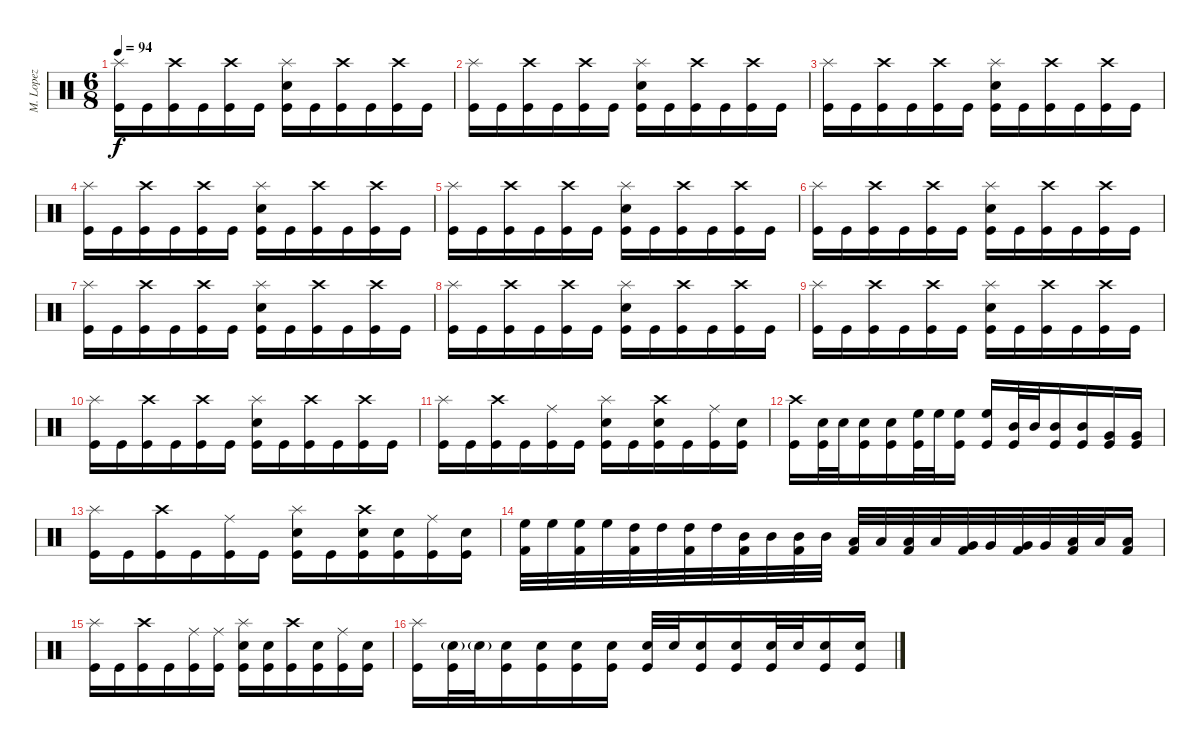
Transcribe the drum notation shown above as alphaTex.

\track ("M. Lopez" "M. Lopez") {instrument percussion}
\staff {score}
\articulation defaults
\ts (6 8)
\tempo 94
\clef neutral
\ks c
("Splash (hit)" "Kick (hit)").16{dy f} "Kick (hit)".16 ("Crash high (hit)" "Kick (hit)").16 "Kick (hit)".16 ("Crash high (hit)" "Kick (hit)").16 "Kick (hit)".16 ("Splash (hit)" "Electric Snare (hit)" "Kick (hit)").16 "Kick (hit)".16 ("Crash high (hit)" "Kick (hit)").16 "Kick (hit)".16 ("Crash high (hit)" "Kick (hit)").16 "Kick (hit)".16 |
("Splash (hit)" "Kick (hit)").16 "Kick (hit)".16 ("Crash high (hit)" "Kick (hit)").16 "Kick (hit)".16 ("Crash high (hit)" "Kick (hit)").16 "Kick (hit)".16 ("Splash (hit)" "Electric Snare (hit)" "Kick (hit)").16 "Kick (hit)".16 ("Crash high (hit)" "Kick (hit)").16 "Kick (hit)".16 ("Crash high (hit)" "Kick (hit)").16 "Kick (hit)".16 |
("Splash (hit)" "Kick (hit)").16 "Kick (hit)".16 ("Crash high (hit)" "Kick (hit)").16 "Kick (hit)".16 ("Crash high (hit)" "Kick (hit)").16 "Kick (hit)".16 ("Splash (hit)" "Electric Snare (hit)" "Kick (hit)").16 "Kick (hit)".16 ("Crash high (hit)" "Kick (hit)").16 "Kick (hit)".16 ("Crash high (hit)" "Kick (hit)").16 "Kick (hit)".16 |
("Splash (hit)" "Kick (hit)").16 "Kick (hit)".16 ("Crash high (hit)" "Kick (hit)").16 "Kick (hit)".16 ("Crash high (hit)" "Kick (hit)").16 "Kick (hit)".16 ("Splash (hit)" "Electric Snare (hit)" "Kick (hit)").16 "Kick (hit)".16 ("Crash high (hit)" "Kick (hit)").16 "Kick (hit)".16 ("Crash high (hit)" "Kick (hit)").16 "Kick (hit)".16 |
("Splash (hit)" "Kick (hit)").16 "Kick (hit)".16 ("Crash high (hit)" "Kick (hit)").16 "Kick (hit)".16 ("Crash high (hit)" "Kick (hit)").16 "Kick (hit)".16 ("Splash (hit)" "Electric Snare (hit)" "Kick (hit)").16 "Kick (hit)".16 ("Crash high (hit)" "Kick (hit)").16 "Kick (hit)".16 ("Crash high (hit)" "Kick (hit)").16 "Kick (hit)".16 |
("Splash (hit)" "Kick (hit)").16 "Kick (hit)".16 ("Crash high (hit)" "Kick (hit)").16 "Kick (hit)".16 ("Crash high (hit)" "Kick (hit)").16 "Kick (hit)".16 ("Splash (hit)" "Electric Snare (hit)" "Kick (hit)").16 "Kick (hit)".16 ("Crash high (hit)" "Kick (hit)").16 "Kick (hit)".16 ("Crash high (hit)" "Kick (hit)").16 "Kick (hit)".16 |
("Splash (hit)" "Kick (hit)").16 "Kick (hit)".16 ("Crash high (hit)" "Kick (hit)").16 "Kick (hit)".16 ("Crash high (hit)" "Kick (hit)").16 "Kick (hit)".16 ("Splash (hit)" "Electric Snare (hit)" "Kick (hit)").16 "Kick (hit)".16 ("Crash high (hit)" "Kick (hit)").16 "Kick (hit)".16 ("Crash high (hit)" "Kick (hit)").16 "Kick (hit)".16 |
("Splash (hit)" "Kick (hit)").16 "Kick (hit)".16 ("Crash high (hit)" "Kick (hit)").16 "Kick (hit)".16 ("Crash high (hit)" "Kick (hit)").16 "Kick (hit)".16 ("Splash (hit)" "Electric Snare (hit)" "Kick (hit)").16 "Kick (hit)".16 ("Crash high (hit)" "Kick (hit)").16 "Kick (hit)".16 ("Crash high (hit)" "Kick (hit)").16 "Kick (hit)".16 |
("Splash (hit)" "Kick (hit)").16 "Kick (hit)".16 ("Crash high (hit)" "Kick (hit)").16 "Kick (hit)".16 ("Crash high (hit)" "Kick (hit)").16 "Kick (hit)".16 ("Splash (hit)" "Electric Snare (hit)" "Kick (hit)").16 "Kick (hit)".16 ("Crash high (hit)" "Kick (hit)").16 "Kick (hit)".16 ("Crash high (hit)" "Kick (hit)").16 "Kick (hit)".16 |
("Splash (hit)" "Kick (hit)").16 "Kick (hit)".16 ("Crash high (hit)" "Kick (hit)").16 "Kick (hit)".16 ("Crash high (hit)" "Kick (hit)").16 "Kick (hit)".16 ("Splash (hit)" "Electric Snare (hit)" "Kick (hit)").16 "Kick (hit)".16 ("Crash high (hit)" "Kick (hit)").16 "Kick (hit)".16 ("Crash high (hit)" "Kick (hit)").16 "Kick (hit)".16 |
("Splash (hit)" "Kick (hit)").16 "Kick (hit)".16 ("Crash high (hit)" "Kick (hit)").16 "Kick (hit)".16 ("Ride (middle)" "Kick (hit)").16 "Kick (hit)".16 ("Splash (hit)" "Electric Snare (hit)" "Kick (hit)").16 "Kick (hit)".16 ("Crash high (hit)" "Electric Snare (hit)" "Kick (hit)").16 "Kick (hit)".16 ("Ride (middle)" "Kick (hit)").16 ("Electric Snare (hit)" "Kick (hit)").16 |
("Crash high (hit)" "Kick (hit)").16 ("Electric Snare (hit)" "Kick (hit)").32 "Electric Snare (hit)".32 ("Electric Snare (hit)" "Kick (hit)").16 ("Electric Snare (hit)" "Kick (hit)").16 ("High Floor Tom (hit)" "Kick (hit)").32 "High Floor Tom (hit)".32 ("High Floor Tom (hit)" "Kick (hit)").16 ("High Floor Tom (hit)" "Kick (hit)").16 ("Mid Tom (hit)" "Kick (hit)").32 "Mid Tom (hit)".32 ("Mid Tom (hit)" "Kick (hit)").16 ("Mid Tom (hit)" "Kick (hit)").16 ("Very Low Tom (hit)" "Kick (hit)").16 ("Very Low Tom (hit)" "Kick (hit)").16 |
("Splash (hit)" "Kick (hit)").16 "Kick (hit)".16 ("Crash high (hit)" "Kick (hit)").16 "Kick (hit)".16 ("Ride (middle)" "Kick (hit)").16 "Kick (hit)".16 ("Splash (hit)" "Electric Snare (hit)" "Kick (hit)").16 "Kick (hit)".16 ("Crash high (hit)" "Electric Snare (hit)" "Kick (hit)").16 ("Electric Snare (hit)" "Kick (hit)").16 ("Ride (middle)" "Kick (hit)").16 ("Electric Snare (hit)" "Kick (hit)").16 |
("High Floor Tom (hit)" "Kick (hit) 2").32 "High Floor Tom (hit)".32 ("High Floor Tom (hit)" "Kick (hit) 2").32 "High Floor Tom (hit)".32 ("High Tom (hit)" "Kick (hit) 2").32 "High Tom (hit)".32 ("High Tom (hit)" "Kick (hit) 2").32 "High Tom (hit)".32 ("Mid Tom (hit)" "Kick (hit) 2").32 "Mid Tom (hit)".32 ("Mid Tom (hit)" "Kick (hit) 2").32 "Mid Tom (hit)".32 ("Low Tom (hit)" "Kick (hit) 2").32 "Low Tom (hit)".32 ("Low Tom (hit)" "Kick (hit) 2").32 "Low Tom (hit)".32 ("Very Low Tom (hit)" "Kick (hit) 2").32 "Very Low Tom (hit)".32 ("Very Low Tom (hit)" "Kick (hit) 2").32 "Very Low Tom (hit)".32 ("Low Floor Tom (hit)" "Kick (hit) 2").32 "Low Floor Tom (hit)".32 ("Low Floor Tom (hit)" "Kick (hit) 2").16 |
("Splash (hit)" "Kick (hit)").16 "Kick (hit)".16 ("Crash high (hit)" "Kick (hit)").16 "Kick (hit)".16 ("Ride (middle)" "Kick (hit)").16 ("Ride (middle)" "Kick (hit)").16 ("Splash (hit)" "Electric Snare (hit)" "Kick (hit)").16 ("Electric Snare (hit)" "Kick (hit)").16 ("Crash high (hit)" "Kick (hit)").16 ("Electric Snare (hit)" "Kick (hit)").16 ("Ride (middle)" "Kick (hit)").16 ("Electric Snare (hit)" "Kick (hit)").16 |
("Splash (hit)" "Kick (hit)").16 ("Electric Snare (hit)"{g} "Kick (hit)").32 "Electric Snare (hit)"{g}.32 ("Electric Snare (hit)" "Kick (hit)").16 ("Electric Snare (hit)" "Kick (hit)").16 ("Electric Snare (hit)" "Kick (hit)").16 ("Electric Snare (hit)" "Kick (hit)").16 ("Electric Snare (hit)" "Kick (hit)").32 "Electric Snare (hit)".32 ("Electric Snare (hit)" "Kick (hit)").16 ("Electric Snare (hit)" "Kick (hit)").16 ("Electric Snare (hit)" "Kick (hit)").32 "Electric Snare (hit)".32 ("Electric Snare (hit)" "Kick (hit)").16 ("Electric Snare (hit)" "Kick (hit)").16
